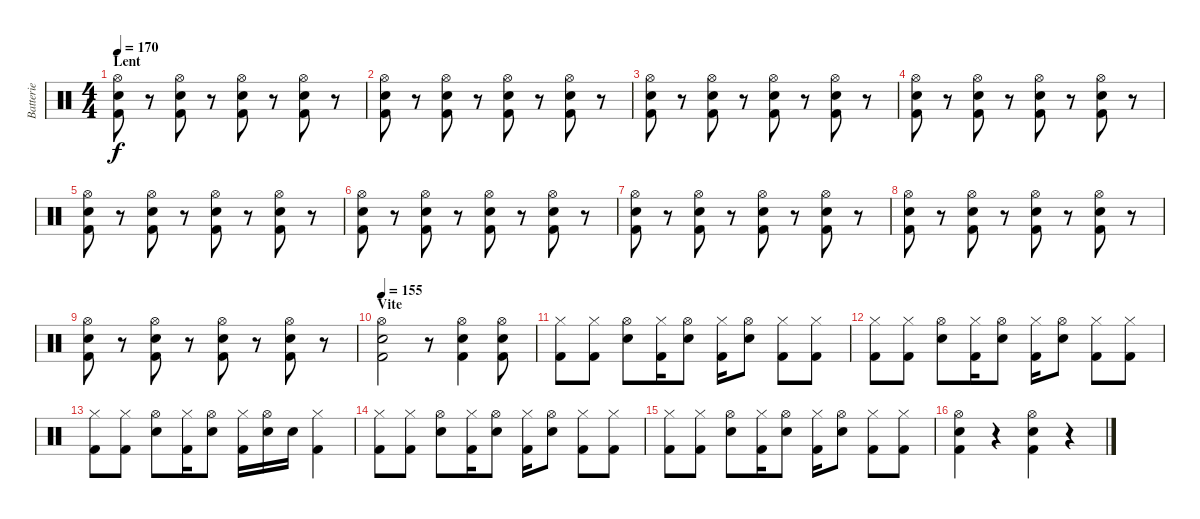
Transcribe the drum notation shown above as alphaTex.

\track ("Batterie" "Batterie") {instrument percussion}
\staff {score}
\articulation defaults
\ts (4 4)
\section ("" "Lent")
\tempo 170
\tempo 105
\tempo 170
\clef neutral
\ks c
("Hi-Hat (open)" "Snare (hit) 2" "Kick (hit) 2").8{dy f} r.8 ("Hi-Hat (open)" "Snare (hit) 2" "Kick (hit) 2").8 r.8 ("Hi-Hat (open)" "Snare (hit) 2" "Kick (hit) 2").8 r.8 ("Hi-Hat (open)" "Snare (hit) 2" "Kick (hit) 2").8 r.8 |
("Hi-Hat (open)" "Snare (hit) 2" "Kick (hit) 2").8 r.8 ("Hi-Hat (open)" "Snare (hit) 2" "Kick (hit) 2").8 r.8 ("Hi-Hat (open)" "Snare (hit) 2" "Kick (hit) 2").8 r.8 ("Hi-Hat (open)" "Snare (hit) 2" "Kick (hit) 2").8 r.8 |
("Hi-Hat (open)" "Snare (hit) 2" "Kick (hit) 2").8 r.8 ("Hi-Hat (open)" "Snare (hit) 2" "Kick (hit) 2").8 r.8 ("Hi-Hat (open)" "Snare (hit) 2" "Kick (hit) 2").8 r.8 ("Hi-Hat (open)" "Snare (hit) 2" "Kick (hit) 2").8 r.8 |
("Hi-Hat (open)" "Snare (hit) 2" "Kick (hit) 2").8 r.8 ("Hi-Hat (open)" "Snare (hit) 2" "Kick (hit) 2").8 r.8 ("Hi-Hat (open)" "Snare (hit) 2" "Kick (hit) 2").8 r.8 ("Hi-Hat (open)" "Snare (hit) 2" "Kick (hit) 2").8 r.8 |
("Hi-Hat (open)" "Snare (hit) 2" "Kick (hit) 2").8 r.8 ("Hi-Hat (open)" "Snare (hit) 2" "Kick (hit) 2").8 r.8 ("Hi-Hat (open)" "Snare (hit) 2" "Kick (hit) 2").8 r.8 ("Hi-Hat (open)" "Snare (hit) 2" "Kick (hit) 2").8 r.8 |
("Hi-Hat (open)" "Snare (hit) 2" "Kick (hit) 2").8 r.8 ("Hi-Hat (open)" "Snare (hit) 2" "Kick (hit) 2").8 r.8 ("Hi-Hat (open)" "Snare (hit) 2" "Kick (hit) 2").8 r.8 ("Hi-Hat (open)" "Snare (hit) 2" "Kick (hit) 2").8 r.8 |
("Hi-Hat (open)" "Snare (hit) 2" "Kick (hit) 2").8 r.8 ("Hi-Hat (open)" "Snare (hit) 2" "Kick (hit) 2").8 r.8 ("Hi-Hat (open)" "Snare (hit) 2" "Kick (hit) 2").8 r.8 ("Hi-Hat (open)" "Snare (hit) 2" "Kick (hit) 2").8 r.8 |
("Hi-Hat (open)" "Snare (hit) 2" "Kick (hit) 2").8 r.8 ("Hi-Hat (open)" "Snare (hit) 2" "Kick (hit) 2").8 r.8 ("Hi-Hat (open)" "Snare (hit) 2" "Kick (hit) 2").8 r.8 ("Hi-Hat (open)" "Snare (hit) 2" "Kick (hit) 2").8 r.8 |
("Hi-Hat (open)" "Snare (hit) 2" "Kick (hit) 2").8 r.8 ("Hi-Hat (open)" "Snare (hit) 2" "Kick (hit) 2").8 r.8 ("Hi-Hat (open)" "Snare (hit) 2" "Kick (hit) 2").8 r.8 ("Hi-Hat (open)" "Snare (hit) 2" "Kick (hit) 2").8 r.8 |
\section ("" "Vite")
\tempo 155
("Hi-Hat (open)" "Snare (hit) 2" "Kick (hit) 2").2 r.8 ("Hi-Hat (open)" "Snare (hit) 2" "Kick (hit) 2").4 ("Hi-Hat (open)" "Snare (hit) 2" "Kick (hit) 2").8 |
("Hi-Hat (closed)" "Kick (hit) 2").8 ("Hi-Hat (closed)" "Kick (hit) 2").8 ("Hi-Hat (open)" "Snare (hit) 2").8 ("Hi-Hat (closed)" "Kick (hit) 2").16 ("Hi-Hat (open)" "Snare (hit) 2").8 ("Hi-Hat (closed)" "Kick (hit) 2").16 ("Hi-Hat (open)" "Snare (hit) 2").8 ("Hi-Hat (closed)" "Kick (hit) 2").8 ("Hi-Hat (closed)" "Kick (hit) 2").8 |
("Hi-Hat (closed)" "Kick (hit) 2").8 ("Hi-Hat (closed)" "Kick (hit) 2").8 ("Hi-Hat (open)" "Snare (hit) 2").8 ("Hi-Hat (closed)" "Kick (hit) 2").16 ("Hi-Hat (open)" "Snare (hit) 2").8 ("Hi-Hat (closed)" "Kick (hit) 2").16 ("Hi-Hat (open)" "Snare (hit) 2").8 ("Hi-Hat (closed)" "Kick (hit) 2").8 ("Hi-Hat (closed)" "Kick (hit) 2").8 |
("Hi-Hat (closed)" "Kick (hit) 2").8 ("Hi-Hat (closed)" "Kick (hit) 2").8 ("Hi-Hat (open)" "Snare (hit) 2").8 ("Hi-Hat (closed)" "Kick (hit) 2").16 ("Hi-Hat (open)" "Snare (hit) 2").8 ("Hi-Hat (closed)" "Kick (hit) 2").16 ("Hi-Hat (open)" "Snare (hit) 2").16 "Snare (hit) 2".16 ("Hi-Hat (closed)" "Kick (hit) 2").4 |
("Hi-Hat (closed)" "Kick (hit) 2").8 ("Hi-Hat (closed)" "Kick (hit) 2").8 ("Hi-Hat (open)" "Snare (hit) 2").8 ("Hi-Hat (closed)" "Kick (hit) 2").16 ("Hi-Hat (open)" "Snare (hit) 2").8 ("Hi-Hat (closed)" "Kick (hit) 2").16 ("Hi-Hat (open)" "Snare (hit) 2").8 ("Hi-Hat (closed)" "Kick (hit) 2").8 ("Hi-Hat (closed)" "Kick (hit) 2").8 |
("Hi-Hat (closed)" "Kick (hit) 2").8 ("Hi-Hat (closed)" "Kick (hit) 2").8 ("Hi-Hat (open)" "Snare (hit) 2").8 ("Hi-Hat (closed)" "Kick (hit) 2").16 ("Hi-Hat (open)" "Snare (hit) 2").8 ("Hi-Hat (closed)" "Kick (hit) 2").16 ("Hi-Hat (open)" "Snare (hit) 2").8 ("Hi-Hat (closed)" "Kick (hit) 2").8 ("Hi-Hat (closed)" "Kick (hit) 2").8 |
("Hi-Hat (open)" "Snare (hit) 2" "Kick (hit) 2").4 r.4 ("Hi-Hat (open)" "Snare (hit) 2" "Kick (hit) 2").4 r.4
